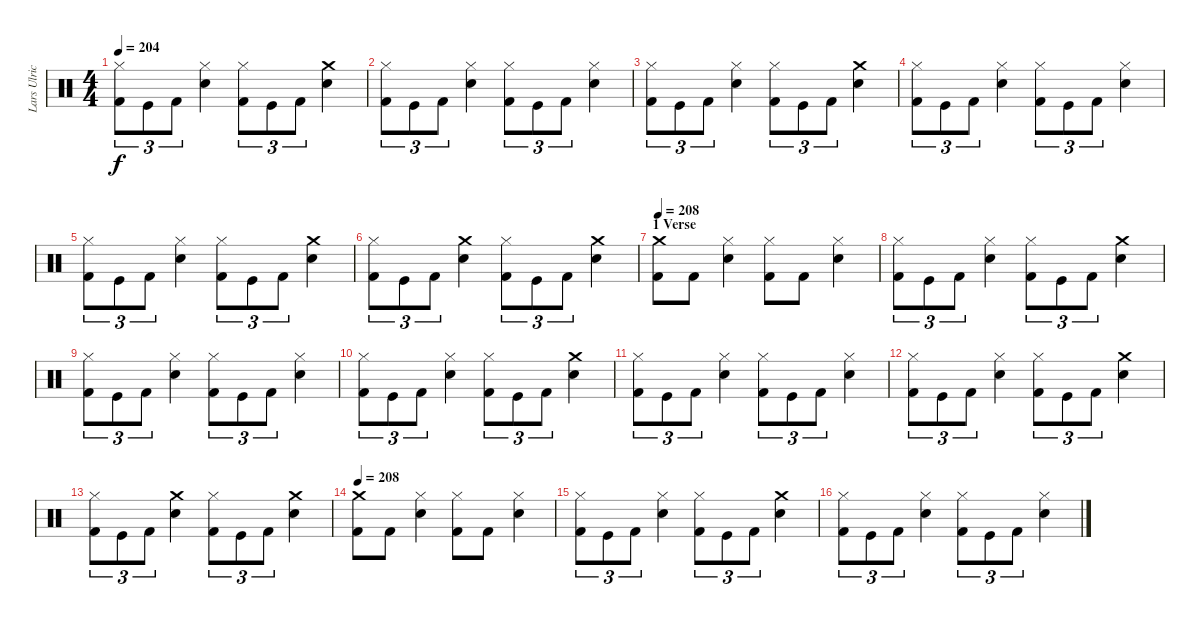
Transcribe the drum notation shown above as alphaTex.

\track ("Lars Ulrich (Drums)" "Lars Ulric") {instrument percussion}
\staff {score}
\articulation defaults
\ts (4 4)
\tempo 204
\clef neutral
\ks c
("Hi-Hat (closed)" "Kick (hit) 2").8{tu (3 2) dy f} "Kick (hit)".8{tu (3 2)} "Kick (hit) 2".8{tu (3 2)} ("Snare (hit) 2" "Hi-Hat (closed)").4 ("Hi-Hat (closed)" "Kick (hit) 2").8{tu (3 2)} "Kick (hit)".8{tu (3 2)} "Kick (hit) 2".8{tu (3 2)} ("Crash medium (hit)" "Snare (hit) 2").4 |
("Hi-Hat (closed)" "Kick (hit) 2").8{tu (3 2)} "Kick (hit)".8{tu (3 2)} "Kick (hit) 2".8{tu (3 2)} ("Snare (hit) 2" "Hi-Hat (closed)").4 ("Hi-Hat (closed)" "Kick (hit) 2").8{tu (3 2)} "Kick (hit)".8{tu (3 2)} "Kick (hit) 2".8{tu (3 2)} ("Hi-Hat (closed)" "Snare (hit) 2").4 |
("Hi-Hat (closed)" "Kick (hit) 2").8{tu (3 2)} "Kick (hit)".8{tu (3 2)} "Kick (hit) 2".8{tu (3 2)} ("Snare (hit) 2" "Hi-Hat (closed)").4 ("Hi-Hat (closed)" "Kick (hit) 2").8{tu (3 2)} "Kick (hit)".8{tu (3 2)} "Kick (hit) 2".8{tu (3 2)} ("Crash medium (hit)" "Snare (hit) 2").4 |
("Hi-Hat (closed)" "Kick (hit) 2").8{tu (3 2)} "Kick (hit)".8{tu (3 2)} "Kick (hit) 2".8{tu (3 2)} ("Snare (hit) 2" "Hi-Hat (closed)").4 ("Hi-Hat (closed)" "Kick (hit) 2").8{tu (3 2)} "Kick (hit)".8{tu (3 2)} "Kick (hit) 2".8{tu (3 2)} ("Hi-Hat (closed)" "Snare (hit) 2").4 |
("Hi-Hat (closed)" "Kick (hit) 2").8{tu (3 2)} "Kick (hit)".8{tu (3 2)} "Kick (hit) 2".8{tu (3 2)} ("Snare (hit) 2" "Hi-Hat (closed)").4 ("Hi-Hat (closed)" "Kick (hit) 2").8{tu (3 2)} "Kick (hit)".8{tu (3 2)} "Kick (hit) 2".8{tu (3 2)} ("Crash medium (hit)" "Snare (hit) 2").4 |
("Hi-Hat (closed)" "Kick (hit) 2").8{tu (3 2)} "Kick (hit)".8{tu (3 2)} "Kick (hit) 2".8{tu (3 2)} ("Crash medium (hit)" "Snare (hit) 2").4 ("Hi-Hat (closed)" "Kick (hit) 2").8{tu (3 2)} "Kick (hit)".8{tu (3 2)} "Kick (hit) 2".8{tu (3 2)} ("Crash medium (hit)" "Snare (hit) 2").4 |
\section ("" "1 Verse")
\tempo 208
("Crash medium (hit)" "Kick (hit) 2").8 "Kick (hit) 2".8 ("Hi-Hat (closed)" "Snare (hit) 2").4 ("Hi-Hat (closed)" "Kick (hit) 2").8 "Kick (hit) 2".8 ("Snare (hit) 2" "Hi-Hat (closed)").4 |
("Hi-Hat (closed)" "Kick (hit) 2").8{tu (3 2)} "Kick (hit)".8{tu (3 2)} "Kick (hit) 2".8{tu (3 2)} ("Snare (hit) 2" "Hi-Hat (closed)").4 ("Hi-Hat (closed)" "Kick (hit) 2").8{tu (3 2)} "Kick (hit)".8{tu (3 2)} "Kick (hit) 2".8{tu (3 2)} ("Crash medium (hit)" "Snare (hit) 2").4 |
("Hi-Hat (closed)" "Kick (hit) 2").8{tu (3 2)} "Kick (hit)".8{tu (3 2)} "Kick (hit) 2".8{tu (3 2)} ("Snare (hit) 2" "Hi-Hat (closed)").4 ("Hi-Hat (closed)" "Kick (hit) 2").8{tu (3 2)} "Kick (hit)".8{tu (3 2)} "Kick (hit) 2".8{tu (3 2)} ("Hi-Hat (closed)" "Snare (hit) 2").4 |
("Hi-Hat (closed)" "Kick (hit) 2").8{tu (3 2)} "Kick (hit)".8{tu (3 2)} "Kick (hit) 2".8{tu (3 2)} ("Snare (hit) 2" "Hi-Hat (closed)").4 ("Hi-Hat (closed)" "Kick (hit) 2").8{tu (3 2)} "Kick (hit)".8{tu (3 2)} "Kick (hit) 2".8{tu (3 2)} ("Crash medium (hit)" "Snare (hit) 2").4 |
("Hi-Hat (closed)" "Kick (hit) 2").8{tu (3 2)} "Kick (hit)".8{tu (3 2)} "Kick (hit) 2".8{tu (3 2)} ("Snare (hit) 2" "Hi-Hat (closed)").4 ("Hi-Hat (closed)" "Kick (hit) 2").8{tu (3 2)} "Kick (hit)".8{tu (3 2)} "Kick (hit) 2".8{tu (3 2)} ("Hi-Hat (closed)" "Snare (hit) 2").4 |
("Hi-Hat (closed)" "Kick (hit) 2").8{tu (3 2)} "Kick (hit)".8{tu (3 2)} "Kick (hit) 2".8{tu (3 2)} ("Snare (hit) 2" "Hi-Hat (closed)").4 ("Hi-Hat (closed)" "Kick (hit) 2").8{tu (3 2)} "Kick (hit)".8{tu (3 2)} "Kick (hit) 2".8{tu (3 2)} ("Crash medium (hit)" "Snare (hit) 2").4 |
("Hi-Hat (closed)" "Kick (hit) 2").8{tu (3 2)} "Kick (hit)".8{tu (3 2)} "Kick (hit) 2".8{tu (3 2)} ("Crash medium (hit)" "Snare (hit) 2").4 ("Hi-Hat (closed)" "Kick (hit) 2").8{tu (3 2)} "Kick (hit)".8{tu (3 2)} "Kick (hit) 2".8{tu (3 2)} ("Crash medium (hit)" "Snare (hit) 2").4 |
\tempo 208
("Crash medium (hit)" "Kick (hit) 2").8 "Kick (hit) 2".8 ("Hi-Hat (closed)" "Snare (hit) 2").4 ("Hi-Hat (closed)" "Kick (hit) 2").8 "Kick (hit) 2".8 ("Snare (hit) 2" "Hi-Hat (closed)").4 |
("Hi-Hat (closed)" "Kick (hit) 2").8{tu (3 2)} "Kick (hit)".8{tu (3 2)} "Kick (hit) 2".8{tu (3 2)} ("Snare (hit) 2" "Hi-Hat (closed)").4 ("Hi-Hat (closed)" "Kick (hit) 2").8{tu (3 2)} "Kick (hit)".8{tu (3 2)} "Kick (hit) 2".8{tu (3 2)} ("Crash medium (hit)" "Snare (hit) 2").4 |
("Hi-Hat (closed)" "Kick (hit) 2").8{tu (3 2)} "Kick (hit)".8{tu (3 2)} "Kick (hit) 2".8{tu (3 2)} ("Snare (hit) 2" "Hi-Hat (closed)").4 ("Hi-Hat (closed)" "Kick (hit) 2").8{tu (3 2)} "Kick (hit)".8{tu (3 2)} "Kick (hit) 2".8{tu (3 2)} ("Hi-Hat (closed)" "Snare (hit) 2").4
